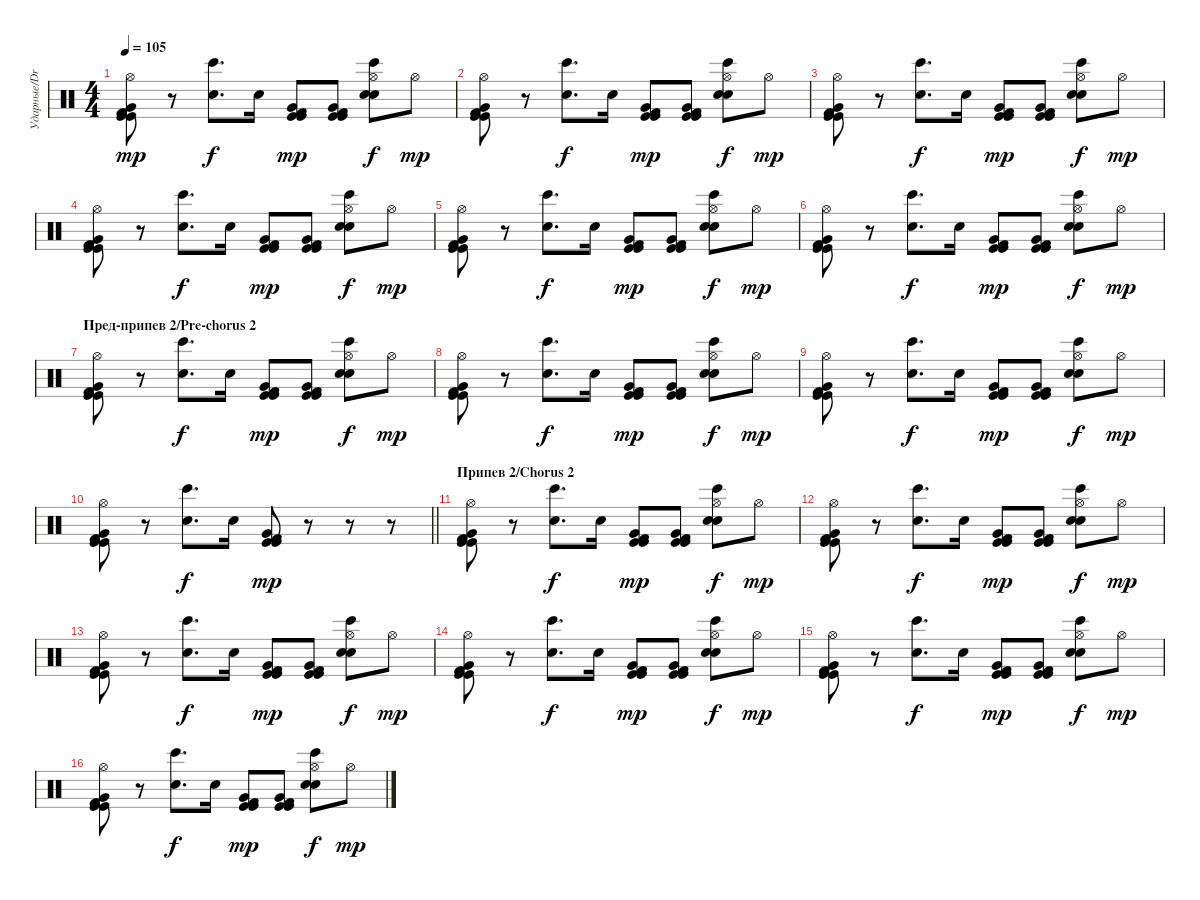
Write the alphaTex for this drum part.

\track ("Ударные/Drums" "Ударные/Dr") {instrument percussion}
\staff {score}
\articulation defaults
\ts (4 4)
\tempo 105
\clef neutral
\ks c
("Hi-Hat (open)" "Kick (hit)" "Kick (hit) 2" "Very Low Tom (hit)" "Kick (hit)").8{dy mp} r.8 ("Snare (hit) 2" "Bongo High (hit)").8{d dy f} "Snare (hit) 2".16 ("Kick (hit)" "Kick (hit) 2" "Very Low Tom (hit)" "Kick (hit)").8{dy mp} ("Kick (hit)" "Kick (hit) 2" "Very Low Tom (hit)" "Kick (hit)").8 ("Hi-Hat (open)" "Snare (hit) 2" "Bongo High (hit)" "Hand Clap (hit)").8{dy f} "Hi-Hat (open)".8{dy mp} |
("Hi-Hat (open)" "Kick (hit)" "Kick (hit) 2" "Very Low Tom (hit)" "Kick (hit)").8 r.8 ("Snare (hit) 2" "Bongo High (hit)").8{d dy f} "Snare (hit) 2".16 ("Kick (hit)" "Kick (hit) 2" "Very Low Tom (hit)" "Kick (hit)").8{dy mp} ("Kick (hit)" "Kick (hit) 2" "Very Low Tom (hit)" "Kick (hit)").8 ("Hi-Hat (open)" "Snare (hit) 2" "Bongo High (hit)" "Hand Clap (hit)").8{dy f} "Hi-Hat (open)".8{dy mp} |
("Hi-Hat (open)" "Kick (hit)" "Kick (hit) 2" "Very Low Tom (hit)" "Kick (hit)").8 r.8 ("Snare (hit) 2" "Bongo High (hit)").8{d dy f} "Snare (hit) 2".16 ("Kick (hit)" "Kick (hit) 2" "Very Low Tom (hit)" "Kick (hit)").8{dy mp} ("Kick (hit)" "Kick (hit) 2" "Very Low Tom (hit)" "Kick (hit)").8 ("Hi-Hat (open)" "Snare (hit) 2" "Bongo High (hit)" "Hand Clap (hit)").8{dy f} "Hi-Hat (open)".8{dy mp} |
("Hi-Hat (open)" "Kick (hit)" "Kick (hit) 2" "Very Low Tom (hit)" "Kick (hit)").8 r.8 ("Snare (hit) 2" "Bongo High (hit)").8{d dy f} "Snare (hit) 2".16 ("Kick (hit)" "Kick (hit) 2" "Very Low Tom (hit)" "Kick (hit)").8{dy mp} ("Kick (hit)" "Kick (hit) 2" "Very Low Tom (hit)" "Kick (hit)").8 ("Hi-Hat (open)" "Snare (hit) 2" "Bongo High (hit)" "Hand Clap (hit)").8{dy f} "Hi-Hat (open)".8{dy mp} |
("Hi-Hat (open)" "Kick (hit)" "Kick (hit) 2" "Very Low Tom (hit)" "Kick (hit)").8 r.8 ("Snare (hit) 2" "Bongo High (hit)").8{d dy f} "Snare (hit) 2".16 ("Kick (hit)" "Kick (hit) 2" "Very Low Tom (hit)" "Kick (hit)").8{dy mp} ("Kick (hit)" "Kick (hit) 2" "Very Low Tom (hit)" "Kick (hit)").8 ("Hi-Hat (open)" "Snare (hit) 2" "Bongo High (hit)" "Hand Clap (hit)").8{dy f} "Hi-Hat (open)".8{dy mp} |
("Hi-Hat (open)" "Kick (hit)" "Kick (hit) 2" "Very Low Tom (hit)" "Kick (hit)").8 r.8 ("Snare (hit) 2" "Bongo High (hit)").8{d dy f} "Snare (hit) 2".16 ("Kick (hit)" "Kick (hit) 2" "Very Low Tom (hit)" "Kick (hit)").8{dy mp} ("Kick (hit)" "Kick (hit) 2" "Very Low Tom (hit)" "Kick (hit)").8 ("Hi-Hat (open)" "Snare (hit) 2" "Bongo High (hit)" "Hand Clap (hit)").8{dy f} "Hi-Hat (open)".8{dy mp} |
\section ("" "Пред-припев 2/Pre-chorus 2")
("Hi-Hat (open)" "Kick (hit)" "Kick (hit) 2" "Very Low Tom (hit)" "Kick (hit)").8 r.8 ("Snare (hit) 2" "Bongo High (hit)").8{d dy f} "Snare (hit) 2".16 ("Kick (hit)" "Kick (hit) 2" "Very Low Tom (hit)" "Kick (hit)").8{dy mp} ("Kick (hit)" "Kick (hit) 2" "Very Low Tom (hit)" "Kick (hit)").8 ("Hi-Hat (open)" "Snare (hit) 2" "Bongo High (hit)" "Hand Clap (hit)").8{dy f} "Hi-Hat (open)".8{dy mp} |
("Hi-Hat (open)" "Kick (hit)" "Kick (hit) 2" "Very Low Tom (hit)" "Kick (hit)").8 r.8 ("Snare (hit) 2" "Bongo High (hit)").8{d dy f} "Snare (hit) 2".16 ("Kick (hit)" "Kick (hit) 2" "Very Low Tom (hit)" "Kick (hit)").8{dy mp} ("Kick (hit)" "Kick (hit) 2" "Very Low Tom (hit)" "Kick (hit)").8 ("Hi-Hat (open)" "Snare (hit) 2" "Bongo High (hit)" "Hand Clap (hit)").8{dy f} "Hi-Hat (open)".8{dy mp} |
("Hi-Hat (open)" "Kick (hit)" "Kick (hit) 2" "Very Low Tom (hit)" "Kick (hit)").8 r.8 ("Snare (hit) 2" "Bongo High (hit)").8{d dy f} "Snare (hit) 2".16 ("Kick (hit)" "Kick (hit) 2" "Very Low Tom (hit)" "Kick (hit)").8{dy mp} ("Kick (hit)" "Kick (hit) 2" "Very Low Tom (hit)" "Kick (hit)").8 ("Hi-Hat (open)" "Snare (hit) 2" "Bongo High (hit)" "Hand Clap (hit)").8{dy f} "Hi-Hat (open)".8{dy mp} |
\barLineRight lightlight
("Hi-Hat (open)" "Kick (hit)" "Kick (hit) 2" "Very Low Tom (hit)" "Kick (hit)").8 r.8 ("Snare (hit) 2" "Bongo High (hit)").8{d dy f} "Snare (hit) 2".16 ("Kick (hit)" "Kick (hit) 2" "Very Low Tom (hit)" "Kick (hit)").8{dy mp} r.8 r.8 r.8 |
\section ("" "Припев 2/Chorus 2")
("Hi-Hat (open)" "Kick (hit)" "Kick (hit) 2" "Very Low Tom (hit)" "Kick (hit)").8 r.8 ("Snare (hit) 2" "Bongo High (hit)").8{d dy f} "Snare (hit) 2".16 ("Kick (hit)" "Kick (hit) 2" "Very Low Tom (hit)" "Kick (hit)").8{dy mp} ("Kick (hit)" "Kick (hit) 2" "Very Low Tom (hit)" "Kick (hit)").8 ("Hi-Hat (open)" "Snare (hit) 2" "Bongo High (hit)" "Hand Clap (hit)").8{dy f} "Hi-Hat (open)".8{dy mp} |
("Hi-Hat (open)" "Kick (hit)" "Kick (hit) 2" "Very Low Tom (hit)" "Kick (hit)").8 r.8 ("Snare (hit) 2" "Bongo High (hit)").8{d dy f} "Snare (hit) 2".16 ("Kick (hit)" "Kick (hit) 2" "Very Low Tom (hit)" "Kick (hit)").8{dy mp} ("Kick (hit)" "Kick (hit) 2" "Very Low Tom (hit)" "Kick (hit)").8 ("Hi-Hat (open)" "Snare (hit) 2" "Bongo High (hit)" "Hand Clap (hit)").8{dy f} "Hi-Hat (open)".8{dy mp} |
("Hi-Hat (open)" "Kick (hit)" "Kick (hit) 2" "Very Low Tom (hit)" "Kick (hit)").8 r.8 ("Snare (hit) 2" "Bongo High (hit)").8{d dy f} "Snare (hit) 2".16 ("Kick (hit)" "Kick (hit) 2" "Very Low Tom (hit)" "Kick (hit)").8{dy mp} ("Kick (hit)" "Kick (hit) 2" "Very Low Tom (hit)" "Kick (hit)").8 ("Hi-Hat (open)" "Snare (hit) 2" "Bongo High (hit)" "Hand Clap (hit)").8{dy f} "Hi-Hat (open)".8{dy mp} |
("Hi-Hat (open)" "Kick (hit)" "Kick (hit) 2" "Very Low Tom (hit)" "Kick (hit)").8 r.8 ("Snare (hit) 2" "Bongo High (hit)").8{d dy f} "Snare (hit) 2".16 ("Kick (hit)" "Kick (hit) 2" "Very Low Tom (hit)" "Kick (hit)").8{dy mp} ("Kick (hit)" "Kick (hit) 2" "Very Low Tom (hit)" "Kick (hit)").8 ("Hi-Hat (open)" "Snare (hit) 2" "Bongo High (hit)" "Hand Clap (hit)").8{dy f} "Hi-Hat (open)".8{dy mp} |
("Hi-Hat (open)" "Kick (hit)" "Kick (hit) 2" "Very Low Tom (hit)" "Kick (hit)").8 r.8 ("Snare (hit) 2" "Bongo High (hit)").8{d dy f} "Snare (hit) 2".16 ("Kick (hit)" "Kick (hit) 2" "Very Low Tom (hit)" "Kick (hit)").8{dy mp} ("Kick (hit)" "Kick (hit) 2" "Very Low Tom (hit)" "Kick (hit)").8 ("Hi-Hat (open)" "Snare (hit) 2" "Bongo High (hit)" "Hand Clap (hit)").8{dy f} "Hi-Hat (open)".8{dy mp} |
("Hi-Hat (open)" "Kick (hit)" "Kick (hit) 2" "Very Low Tom (hit)" "Kick (hit)").8 r.8 ("Snare (hit) 2" "Bongo High (hit)").8{d dy f} "Snare (hit) 2".16 ("Kick (hit)" "Kick (hit) 2" "Very Low Tom (hit)" "Kick (hit)").8{dy mp} ("Kick (hit)" "Kick (hit) 2" "Very Low Tom (hit)" "Kick (hit)").8 ("Hi-Hat (open)" "Snare (hit) 2" "Bongo High (hit)" "Hand Clap (hit)").8{dy f} "Hi-Hat (open)".8{dy mp}
